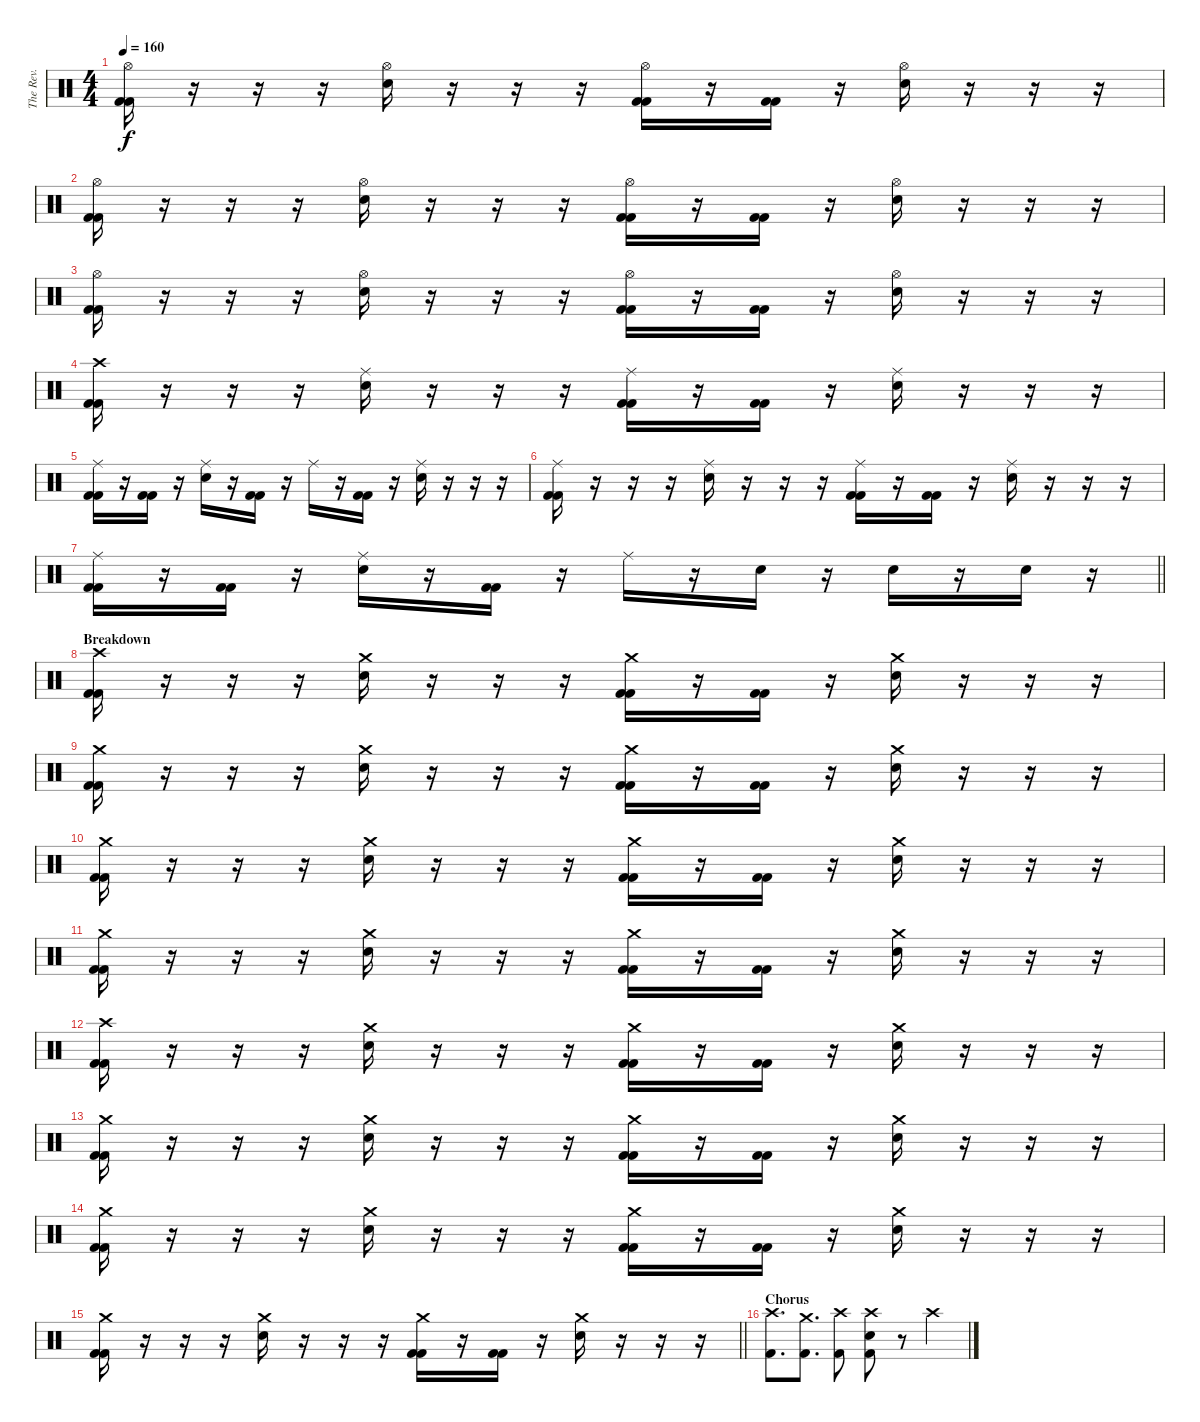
\track ("The Rev." "The Rev.") {instrument percussion}
\staff {score}
\articulation defaults
\ts (4 4)
\tempo 160
\clef neutral
\ks c
("Hi-Hat (open)" "Kick (hit) 2" "Kick (hit) 2").16{dy f} r.16 r.16 r.16 ("Hi-Hat (open)" "Electric Snare (hit)").16 r.16 r.16 r.16 ("Hi-Hat (open)" "Kick (hit) 2" "Kick (hit) 2").16 r.16 ("Kick (hit) 2" "Kick (hit) 2").16 r.16 ("Hi-Hat (open)" "Electric Snare (hit)").16 r.16 r.16 r.16 |
("Hi-Hat (open)" "Kick (hit) 2" "Kick (hit) 2").16 r.16 r.16 r.16 ("Hi-Hat (open)" "Electric Snare (hit)").16 r.16 r.16 r.16 ("Hi-Hat (open)" "Kick (hit) 2" "Kick (hit) 2").16 r.16 ("Kick (hit) 2" "Kick (hit) 2").16 r.16 ("Hi-Hat (open)" "Electric Snare (hit)").16 r.16 r.16 r.16 |
("Hi-Hat (open)" "Kick (hit) 2" "Kick (hit) 2").16 r.16 r.16 r.16 ("Hi-Hat (open)" "Electric Snare (hit)").16 r.16 r.16 r.16 ("Hi-Hat (open)" "Kick (hit) 2" "Kick (hit) 2").16 r.16 ("Kick (hit) 2" "Kick (hit) 2").16 r.16 ("Hi-Hat (open)" "Electric Snare (hit)").16 r.16 r.16 r.16 |
("Crash high (hit)" "Kick (hit) 2" "Kick (hit) 2").16 r.16 r.16 r.16 ("Ride (middle)" "Electric Snare (hit)").16 r.16 r.16 r.16 ("Ride (middle)" "Kick (hit) 2" "Kick (hit) 2").16 r.16 ("Kick (hit) 2" "Kick (hit) 2").16 r.16 ("Ride (middle)" "Electric Snare (hit)").16 r.16 r.16 r.16 |
("Ride (middle)" "Kick (hit) 2" "Kick (hit) 2").16 r.16 ("Kick (hit) 2" "Kick (hit) 2").16 r.16 ("Ride (middle)" "Electric Snare (hit)").16 r.16 ("Kick (hit) 2" "Kick (hit) 2").16 r.16 "Ride (middle)".16 r.16 ("Kick (hit) 2" "Kick (hit) 2").16 r.16 ("Ride (middle)" "Electric Snare (hit)").16 r.16 r.16 r.16 |
("Ride (middle)" "Kick (hit) 2" "Kick (hit) 2").16 r.16 r.16 r.16 ("Ride (middle)" "Electric Snare (hit)").16 r.16 r.16 r.16 ("Ride (middle)" "Kick (hit) 2" "Kick (hit) 2").16 r.16 ("Kick (hit) 2" "Kick (hit) 2").16 r.16 ("Ride (middle)" "Electric Snare (hit)").16 r.16 r.16 r.16 |
\barLineRight lightlight
("Ride (middle)" "Kick (hit) 2" "Kick (hit) 2").16 r.16 ("Kick (hit) 2" "Kick (hit) 2").16 r.16 ("Ride (middle)" "Electric Snare (hit)").16 r.16 ("Kick (hit) 2" "Kick (hit) 2").16 r.16 "Ride (middle)".16 r.16 "Electric Snare (hit)".16 r.16 "Electric Snare (hit)".16 r.16 "Electric Snare (hit)".16 r.16 |
\section ("" "Breakdown")
("Crash high (hit)" "Kick (hit) 2" "Kick (hit) 2").16 r.16 r.16 r.16 ("Crash medium (hit)" "Electric Snare (hit)").16 r.16 r.16 r.16 ("Crash medium (hit)" "Kick (hit) 2" "Kick (hit) 2").16 r.16 ("Kick (hit) 2" "Kick (hit) 2").16 r.16 ("Crash medium (hit)" "Electric Snare (hit)").16 r.16 r.16 r.16 |
("Crash medium (hit)" "Kick (hit) 2" "Kick (hit) 2").16 r.16 r.16 r.16 ("Crash medium (hit)" "Electric Snare (hit)").16 r.16 r.16 r.16 ("Crash medium (hit)" "Kick (hit) 2" "Kick (hit) 2").16 r.16 ("Kick (hit) 2" "Kick (hit) 2").16 r.16 ("Crash medium (hit)" "Electric Snare (hit)").16 r.16 r.16 r.16 |
("Crash medium (hit)" "Kick (hit) 2" "Kick (hit) 2").16 r.16 r.16 r.16 ("Crash medium (hit)" "Electric Snare (hit)").16 r.16 r.16 r.16 ("Crash medium (hit)" "Kick (hit) 2" "Kick (hit) 2").16 r.16 ("Kick (hit) 2" "Kick (hit) 2").16 r.16 ("Crash medium (hit)" "Electric Snare (hit)").16 r.16 r.16 r.16 |
("Crash medium (hit)" "Kick (hit) 2" "Kick (hit) 2").16 r.16 r.16 r.16 ("Crash medium (hit)" "Electric Snare (hit)").16 r.16 r.16 r.16 ("Crash medium (hit)" "Kick (hit) 2" "Kick (hit) 2").16 r.16 ("Kick (hit) 2" "Kick (hit) 2").16 r.16 ("Crash medium (hit)" "Electric Snare (hit)").16 r.16 r.16 r.16 |
("Crash high (hit)" "Kick (hit) 2" "Kick (hit) 2").16 r.16 r.16 r.16 ("Crash medium (hit)" "Electric Snare (hit)").16 r.16 r.16 r.16 ("Crash medium (hit)" "Kick (hit) 2" "Kick (hit) 2").16 r.16 ("Kick (hit) 2" "Kick (hit) 2").16 r.16 ("Crash medium (hit)" "Electric Snare (hit)").16 r.16 r.16 r.16 |
("Crash medium (hit)" "Kick (hit) 2" "Kick (hit) 2").16 r.16 r.16 r.16 ("Crash medium (hit)" "Electric Snare (hit)").16 r.16 r.16 r.16 ("Crash medium (hit)" "Kick (hit) 2" "Kick (hit) 2").16 r.16 ("Kick (hit) 2" "Kick (hit) 2").16 r.16 ("Crash medium (hit)" "Electric Snare (hit)").16 r.16 r.16 r.16 |
("Crash medium (hit)" "Kick (hit) 2" "Kick (hit) 2").16 r.16 r.16 r.16 ("Crash medium (hit)" "Electric Snare (hit)").16 r.16 r.16 r.16 ("Crash medium (hit)" "Kick (hit) 2" "Kick (hit) 2").16 r.16 ("Kick (hit) 2" "Kick (hit) 2").16 r.16 ("Crash medium (hit)" "Electric Snare (hit)").16 r.16 r.16 r.16 |
\barLineRight lightlight
("Crash medium (hit)" "Kick (hit) 2" "Kick (hit) 2").16 r.16 r.16 r.16 ("Crash medium (hit)" "Electric Snare (hit)").16 r.16 r.16 r.16 ("Crash medium (hit)" "Kick (hit) 2" "Kick (hit) 2").16 r.16 ("Kick (hit) 2" "Kick (hit) 2").16 r.16 ("Crash medium (hit)" "Electric Snare (hit)").16 r.16 r.16 r.16 |
\section ("" "Chorus")
("Crash high (hit)" "Kick (hit) 2").8{d} ("Crash medium (hit)" "Kick (hit) 2").8{d} ("Crash high (hit)" "Kick (hit) 2").8 ("Crash high (hit)" "Electric Snare (hit)" "Kick (hit) 2").8 r.8 "Crash high (hit)".4
